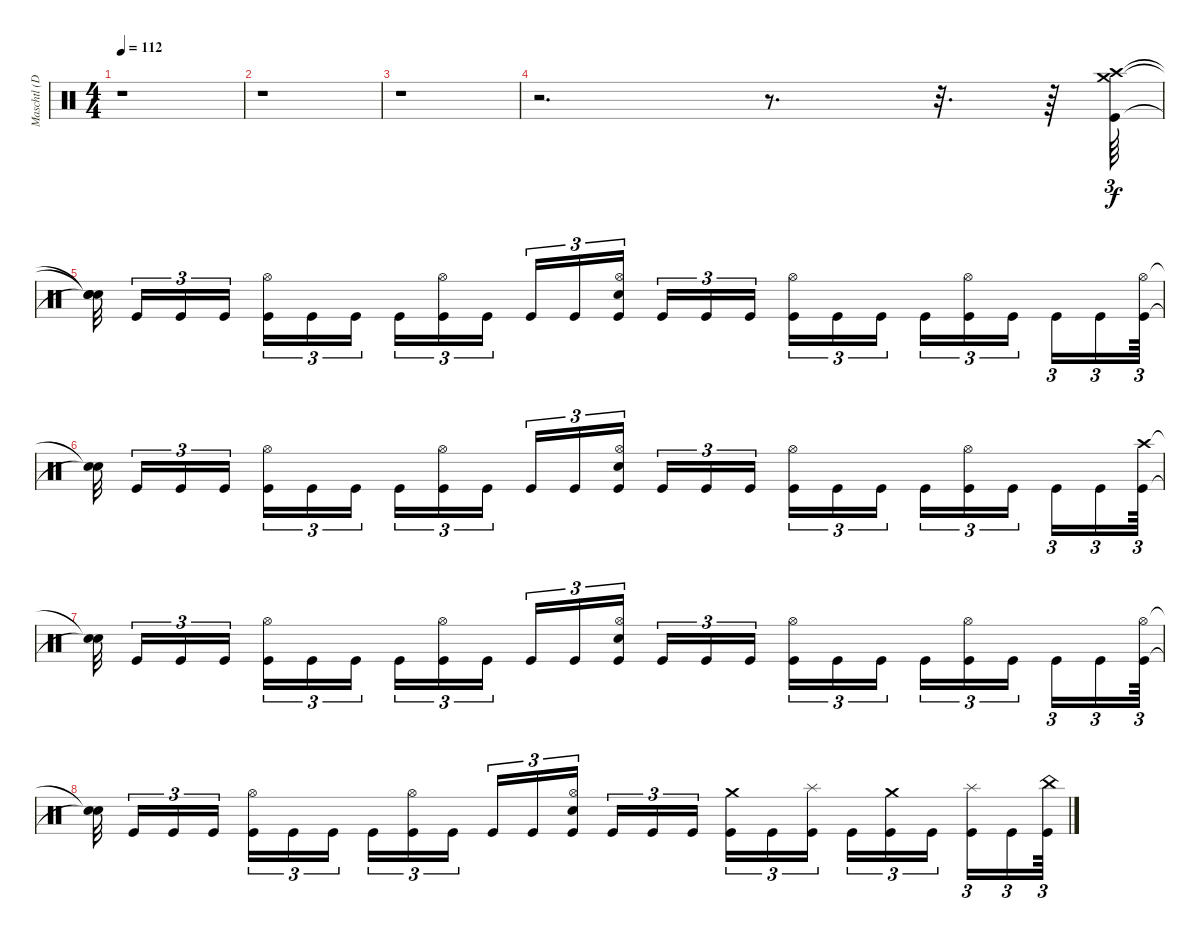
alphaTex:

\track ("Maschtl (Drums)" "Maschtl (D") {instrument percussion}
\staff {score}
\articulation defaults
\ts (4 4)
\tempo 112
\clef neutral
\ks c
r.1{dy f} |
r.1 |
r.1 |
r.2{d} r.8{d} r.32{d} r.64 ("Crash high (hit)" "Crash medium (hit)" "Kick (hit)").64{tu (3 2)} |
("Snare (hit)"{t} "Snare (hit)"{t} "Snare (hit)"{t}).32 "Kick (hit)".16{tu (3 2)} "Kick (hit)".16{tu (3 2)} "Kick (hit)".16{tu (3 2)} ("Hi-Hat (open)" "Kick (hit)").16{tu (3 2)} "Kick (hit)".16{tu (3 2)} "Kick (hit)".16{tu (3 2)} "Kick (hit)".16{tu (3 2)} ("Hi-Hat (open)" "Kick (hit)").16{tu (3 2)} "Kick (hit)".16{tu (3 2)} "Kick (hit)".16{tu (3 2)} "Kick (hit)".16{tu (3 2)} ("Hi-Hat (open)" "Electric Snare (hit)" "Kick (hit)").16{tu (3 2)} "Kick (hit)".16{tu (3 2)} "Kick (hit)".16{tu (3 2)} "Kick (hit)".16{tu (3 2)} ("Hi-Hat (open)" "Kick (hit)").16{tu (3 2)} "Kick (hit)".16{tu (3 2)} "Kick (hit)".16{tu (3 2)} "Kick (hit)".16{tu (3 2)} ("Hi-Hat (open)" "Kick (hit)").16{tu (3 2)} "Kick (hit)".16{tu (3 2)} "Kick (hit)".16{tu (3 2)} "Kick (hit)".16{tu (3 2)} ("Hi-Hat (open)" "Kick (hit)").64{tu (3 2)} |
("Snare (hit)"{t} "Snare (hit)"{t}).32 "Kick (hit)".16{tu (3 2)} "Kick (hit)".16{tu (3 2)} "Kick (hit)".16{tu (3 2)} ("Hi-Hat (open)" "Kick (hit)").16{tu (3 2)} "Kick (hit)".16{tu (3 2)} "Kick (hit)".16{tu (3 2)} "Kick (hit)".16{tu (3 2)} ("Hi-Hat (open)" "Kick (hit)").16{tu (3 2)} "Kick (hit)".16{tu (3 2)} "Kick (hit)".16{tu (3 2)} "Kick (hit)".16{tu (3 2)} ("Hi-Hat (open)" "Electric Snare (hit)" "Kick (hit)").16{tu (3 2)} "Kick (hit)".16{tu (3 2)} "Kick (hit)".16{tu (3 2)} "Kick (hit)".16{tu (3 2)} ("Hi-Hat (open)" "Kick (hit)").16{tu (3 2)} "Kick (hit)".16{tu (3 2)} "Kick (hit)".16{tu (3 2)} "Kick (hit)".16{tu (3 2)} ("Hi-Hat (open)" "Kick (hit)").16{tu (3 2)} "Kick (hit)".16{tu (3 2)} "Kick (hit)".16{tu (3 2)} "Kick (hit)".16{tu (3 2)} ("Crash high (hit)" "Kick (hit)").64{tu (3 2)} |
("Snare (hit)"{t} "Snare (hit)"{t}).32 "Kick (hit)".16{tu (3 2)} "Kick (hit)".16{tu (3 2)} "Kick (hit)".16{tu (3 2)} ("Hi-Hat (open)" "Kick (hit)").16{tu (3 2)} "Kick (hit)".16{tu (3 2)} "Kick (hit)".16{tu (3 2)} "Kick (hit)".16{tu (3 2)} ("Hi-Hat (open)" "Kick (hit)").16{tu (3 2)} "Kick (hit)".16{tu (3 2)} "Kick (hit)".16{tu (3 2)} "Kick (hit)".16{tu (3 2)} ("Hi-Hat (open)" "Electric Snare (hit)" "Kick (hit)").16{tu (3 2)} "Kick (hit)".16{tu (3 2)} "Kick (hit)".16{tu (3 2)} "Kick (hit)".16{tu (3 2)} ("Hi-Hat (open)" "Kick (hit)").16{tu (3 2)} "Kick (hit)".16{tu (3 2)} "Kick (hit)".16{tu (3 2)} "Kick (hit)".16{tu (3 2)} ("Hi-Hat (open)" "Kick (hit)").16{tu (3 2)} "Kick (hit)".16{tu (3 2)} "Kick (hit)".16{tu (3 2)} "Kick (hit)".16{tu (3 2)} ("Hi-Hat (open)" "Kick (hit)").64{tu (3 2)} |
("Snare (hit)"{t} "Snare (hit)"{t}).32 "Kick (hit)".16{tu (3 2)} "Kick (hit)".16{tu (3 2)} "Kick (hit)".16{tu (3 2)} ("Hi-Hat (open)" "Kick (hit)").16{tu (3 2)} "Kick (hit)".16{tu (3 2)} "Kick (hit)".16{tu (3 2)} "Kick (hit)".16{tu (3 2)} ("Hi-Hat (open)" "Kick (hit)").16{tu (3 2)} "Kick (hit)".16{tu (3 2)} "Kick (hit)".16{tu (3 2)} "Kick (hit)".16{tu (3 2)} ("Hi-Hat (open)" "Electric Snare (hit)" "Kick (hit)").16{tu (3 2)} "Kick (hit)".16{tu (3 2)} "Kick (hit)".16{tu (3 2)} "Kick (hit)".16{tu (3 2)} ("Crash medium (hit)" "Kick (hit)").16{tu (3 2)} "Kick (hit)".16{tu (3 2)} ("Splash (hit)" "Kick (hit)").16{tu (3 2)} "Kick (hit)".16{tu (3 2)} ("Crash medium (hit)" "Kick (hit)").16{tu (3 2)} "Kick (hit)".16{tu (3 2)} ("Splash (hit)" "Kick (hit)").16{tu (3 2)} "Kick (hit)".16{tu (3 2)} ("China (hit)" "Kick (hit)").64{tu (3 2)}
